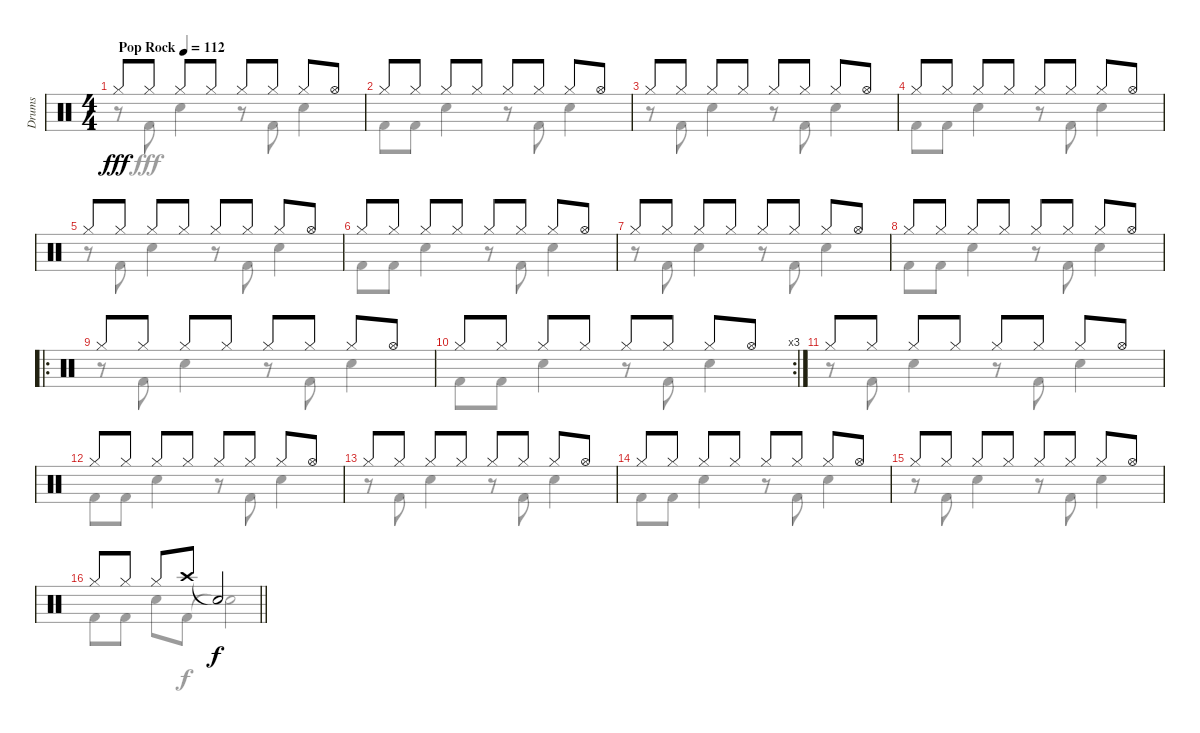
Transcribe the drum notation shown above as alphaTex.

\track ("Drums" "Drums") {instrument percussion}
\staff {score}
\articulation defaults
\voice
\ts (4 4)
\tempo (112 "Pop Rock")
\clef neutral
\ks c "Hi-Hat (closed)".8{dy fff} "Hi-Hat (closed)".8 "Hi-Hat (closed)".8 "Hi-Hat (closed)".8 "Hi-Hat (closed)".8 "Hi-Hat (closed)".8 "Hi-Hat (closed)".8 "Hi-Hat (open)".8
|
"Hi-Hat (closed)".8 "Hi-Hat (closed)".8 "Hi-Hat (closed)".8 "Hi-Hat (closed)".8 "Hi-Hat (closed)".8 "Hi-Hat (closed)".8 "Hi-Hat (closed)".8 "Hi-Hat (open)".8 |
"Hi-Hat (closed)".8 "Hi-Hat (closed)".8 "Hi-Hat (closed)".8 "Hi-Hat (closed)".8 "Hi-Hat (closed)".8 "Hi-Hat (closed)".8 "Hi-Hat (closed)".8 "Hi-Hat (open)".8 |
"Hi-Hat (closed)".8 "Hi-Hat (closed)".8 "Hi-Hat (closed)".8 "Hi-Hat (closed)".8 "Hi-Hat (closed)".8 "Hi-Hat (closed)".8 "Hi-Hat (closed)".8 "Hi-Hat (open)".8 |
"Hi-Hat (closed)".8 "Hi-Hat (closed)".8 "Hi-Hat (closed)".8 "Hi-Hat (closed)".8 "Hi-Hat (closed)".8 "Hi-Hat (closed)".8 "Hi-Hat (closed)".8 "Hi-Hat (open)".8 |
"Hi-Hat (closed)".8 "Hi-Hat (closed)".8 "Hi-Hat (closed)".8 "Hi-Hat (closed)".8 "Hi-Hat (closed)".8 "Hi-Hat (closed)".8 "Hi-Hat (closed)".8 "Hi-Hat (open)".8 |
"Hi-Hat (closed)".8 "Hi-Hat (closed)".8 "Hi-Hat (closed)".8 "Hi-Hat (closed)".8 "Hi-Hat (closed)".8 "Hi-Hat (closed)".8 "Hi-Hat (closed)".8 "Hi-Hat (open)".8 |
"Hi-Hat (closed)".8 "Hi-Hat (closed)".8 "Hi-Hat (closed)".8 "Hi-Hat (closed)".8 "Hi-Hat (closed)".8 "Hi-Hat (closed)".8 "Hi-Hat (closed)".8 "Hi-Hat (open)".8 |
\ro "Hi-Hat (closed)".8 "Hi-Hat (closed)".8 "Hi-Hat (closed)".8 "Hi-Hat (closed)".8 "Hi-Hat (closed)".8 "Hi-Hat (closed)".8 "Hi-Hat (closed)".8 "Hi-Hat (open)".8
|
\rc 3 "Hi-Hat (closed)".8 "Hi-Hat (closed)".8 "Hi-Hat (closed)".8 "Hi-Hat (closed)".8 "Hi-Hat (closed)".8 "Hi-Hat (closed)".8 "Hi-Hat (closed)".8 "Hi-Hat (open)".8
|
"Hi-Hat (closed)".8 "Hi-Hat (closed)".8 "Hi-Hat (closed)".8 "Hi-Hat (closed)".8 "Hi-Hat (closed)".8 "Hi-Hat (closed)".8 "Hi-Hat (closed)".8 "Hi-Hat (open)".8 |
"Hi-Hat (closed)".8 "Hi-Hat (closed)".8 "Hi-Hat (closed)".8 "Hi-Hat (closed)".8 "Hi-Hat (closed)".8 "Hi-Hat (closed)".8 "Hi-Hat (closed)".8 "Hi-Hat (open)".8 |
"Hi-Hat (closed)".8 "Hi-Hat (closed)".8 "Hi-Hat (closed)".8 "Hi-Hat (closed)".8 "Hi-Hat (closed)".8 "Hi-Hat (closed)".8 "Hi-Hat (closed)".8 "Hi-Hat (open)".8 |
"Hi-Hat (closed)".8 "Hi-Hat (closed)".8 "Hi-Hat (closed)".8 "Hi-Hat (closed)".8 "Hi-Hat (closed)".8 "Hi-Hat (closed)".8 "Hi-Hat (closed)".8 "Hi-Hat (open)".8 |
"Hi-Hat (closed)".8 "Hi-Hat (closed)".8 "Hi-Hat (closed)".8 "Hi-Hat (closed)".8 "Hi-Hat (closed)".8 "Hi-Hat (closed)".8 "Hi-Hat (closed)".8 "Hi-Hat (open)".8 |
\barLineRight lightlight "Hi-Hat (closed)".8 "Hi-Hat (closed)".8 "Hi-Hat (closed)".8 "Crash high (hit)".8 "Snare (hit)"{t}.2{dy f}
\voice
\clef neutral
\ottava regular
\simile none
\ks c
r.8{dy fff} "Kick (hit) 2".8 "Electric Snare (hit)".4 r.8 "Kick (hit) 2".8 "Electric Snare (hit)".4 |
"Kick (hit) 2".8 "Kick (hit) 2".8 "Electric Snare (hit)".4 r.8 "Kick (hit) 2".8 "Electric Snare (hit)".4 |
r.8 "Kick (hit) 2".8 "Electric Snare (hit)".4 r.8 "Kick (hit) 2".8 "Electric Snare (hit)".4 |
"Kick (hit) 2".8 "Kick (hit) 2".8 "Electric Snare (hit)".4 r.8 "Kick (hit) 2".8 "Electric Snare (hit)".4 |
r.8 "Kick (hit) 2".8 "Electric Snare (hit)".4 r.8 "Kick (hit) 2".8 "Electric Snare (hit)".4 |
"Kick (hit) 2".8 "Kick (hit) 2".8 "Electric Snare (hit)".4 r.8 "Kick (hit) 2".8 "Electric Snare (hit)".4 |
r.8 "Kick (hit) 2".8 "Electric Snare (hit)".4 r.8 "Kick (hit) 2".8 "Electric Snare (hit)".4 |
"Kick (hit) 2".8 "Kick (hit) 2".8 "Electric Snare (hit)".4 r.8 "Kick (hit) 2".8 "Electric Snare (hit)".4 |
r.8 "Kick (hit) 2".8 "Electric Snare (hit)".4 r.8 "Kick (hit) 2".8 "Electric Snare (hit)".4 |
"Kick (hit) 2".8 "Kick (hit) 2".8 "Electric Snare (hit)".4 r.8 "Kick (hit) 2".8 "Electric Snare (hit)".4 |
r.8 "Kick (hit) 2".8 "Electric Snare (hit)".4 r.8 "Kick (hit) 2".8 "Electric Snare (hit)".4 |
"Kick (hit) 2".8 "Kick (hit) 2".8 "Electric Snare (hit)".4 r.8 "Kick (hit) 2".8 "Electric Snare (hit)".4 |
r.8 "Kick (hit) 2".8 "Electric Snare (hit)".4 r.8 "Kick (hit) 2".8 "Electric Snare (hit)".4 |
"Kick (hit) 2".8 "Kick (hit) 2".8 "Electric Snare (hit)".4 r.8 "Kick (hit) 2".8 "Electric Snare (hit)".4 |
r.8 "Kick (hit) 2".8 "Electric Snare (hit)".4 r.8 "Kick (hit) 2".8 "Electric Snare (hit)".4 |
\barLineRight lightlight "Kick (hit) 2".8 "Kick (hit) 2".8 "Electric Snare (hit)".8 "Kick (hit) 2".8{dy f} "Snare (hit)"{t}.2
